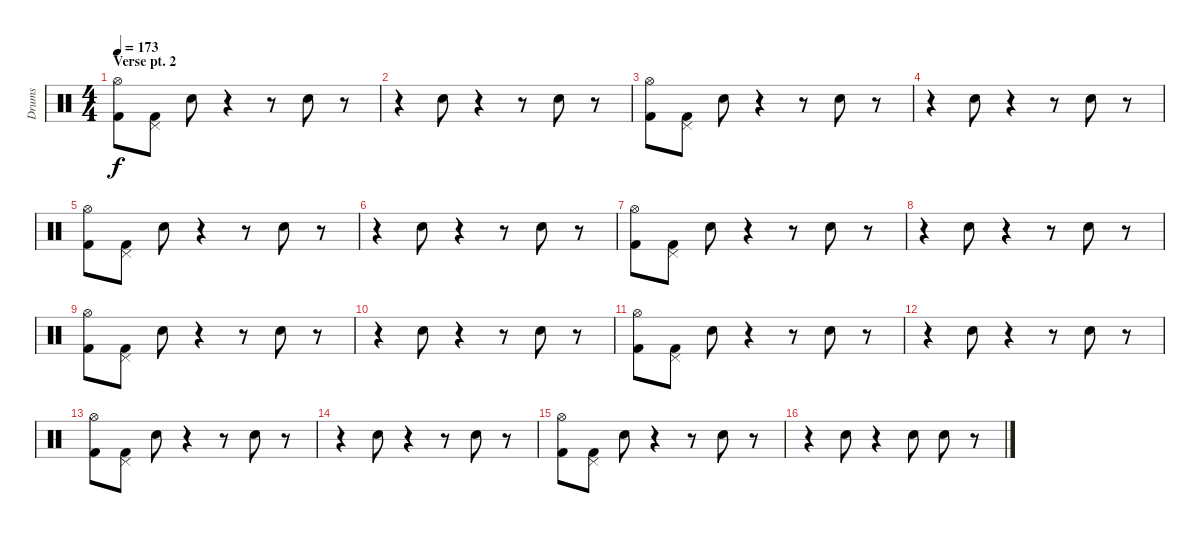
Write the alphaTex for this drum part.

\track ("Drums" "Drums") {instrument percussion}
\staff {score}
\articulation defaults
\ts (4 4)
\section ("" "Verse pt. 2")
\tempo 173
\clef neutral
\ks c
("Hi-Hat (open)" "Kick (hit) 2").8{dy f} ("Pedal Hi-Hat (hit)" "Kick (hit) 2").8 "Snare (hit) 2".8 r.4 r.8 "Snare (hit) 2".8 r.8 |
r.4 "Snare (hit) 2".8 r.4 r.8 "Snare (hit) 2".8 r.8 |
("Hi-Hat (open)" "Kick (hit) 2").8 ("Pedal Hi-Hat (hit)" "Kick (hit) 2").8 "Snare (hit) 2".8 r.4 r.8 "Snare (hit) 2".8 r.8 |
r.4 "Snare (hit) 2".8 r.4 r.8 "Snare (hit) 2".8 r.8 |
("Hi-Hat (open)" "Kick (hit) 2").8 ("Pedal Hi-Hat (hit)" "Kick (hit) 2").8 "Snare (hit) 2".8 r.4 r.8 "Snare (hit) 2".8 r.8 |
r.4 "Snare (hit) 2".8 r.4 r.8 "Snare (hit) 2".8 r.8 |
("Hi-Hat (open)" "Kick (hit) 2").8 ("Pedal Hi-Hat (hit)" "Kick (hit) 2").8 "Snare (hit) 2".8 r.4 r.8 "Snare (hit) 2".8 r.8 |
r.4 "Snare (hit) 2".8 r.4 r.8 "Snare (hit) 2".8 r.8 |
("Hi-Hat (open)" "Kick (hit) 2").8 ("Pedal Hi-Hat (hit)" "Kick (hit) 2").8 "Snare (hit) 2".8 r.4 r.8 "Snare (hit) 2".8 r.8 |
r.4 "Snare (hit) 2".8 r.4 r.8 "Snare (hit) 2".8 r.8 |
("Hi-Hat (open)" "Kick (hit) 2").8 ("Pedal Hi-Hat (hit)" "Kick (hit) 2").8 "Snare (hit) 2".8 r.4 r.8 "Snare (hit) 2".8 r.8 |
r.4 "Snare (hit) 2".8 r.4 r.8 "Snare (hit) 2".8 r.8 |
("Hi-Hat (open)" "Kick (hit) 2").8 ("Pedal Hi-Hat (hit)" "Kick (hit) 2").8 "Snare (hit) 2".8 r.4 r.8 "Snare (hit) 2".8 r.8 |
r.4 "Snare (hit) 2".8 r.4 r.8 "Snare (hit) 2".8 r.8 |
("Hi-Hat (open)" "Kick (hit) 2").8 ("Pedal Hi-Hat (hit)" "Kick (hit) 2").8 "Snare (hit) 2".8 r.4 r.8 "Snare (hit) 2".8 r.8 |
r.4 "Snare (hit) 2".8 r.4 "Snare (hit) 2".8 "Snare (hit) 2".8 r.8
